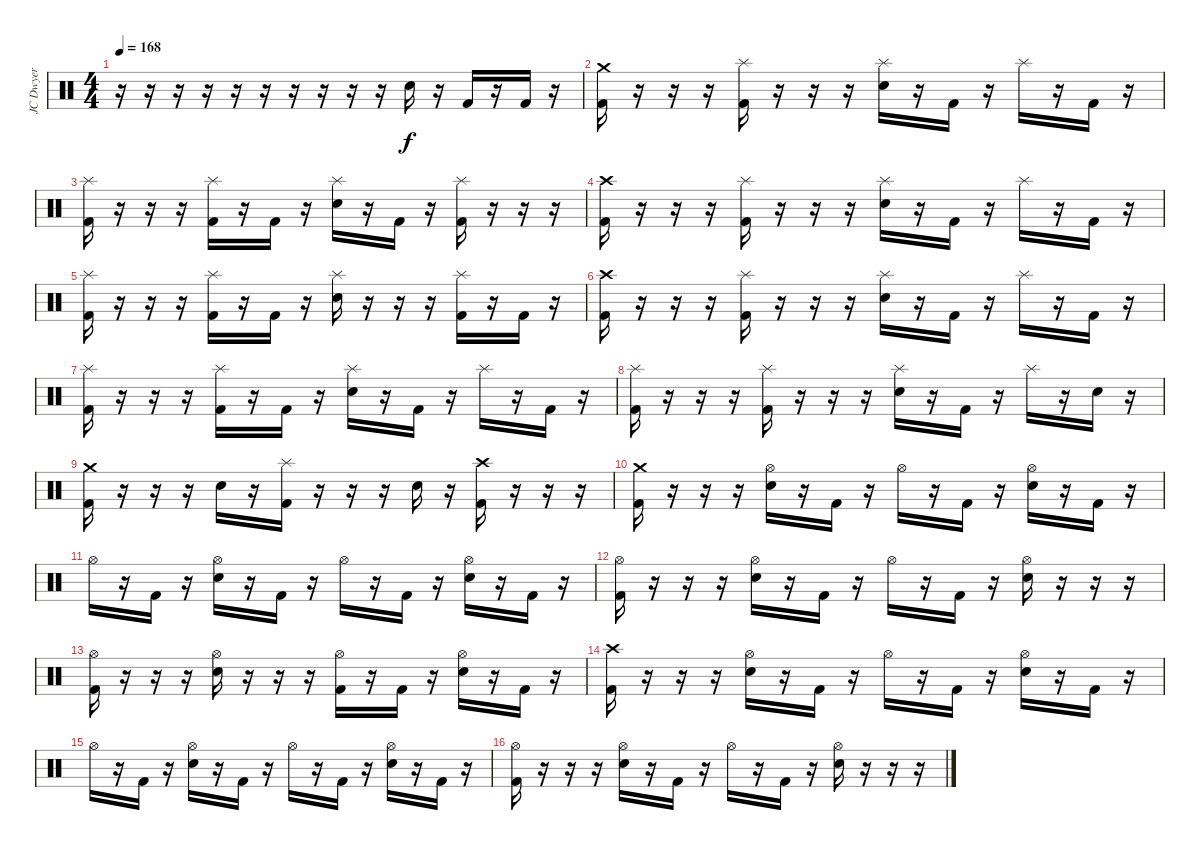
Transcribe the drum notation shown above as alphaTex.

\track ("JC Dwyer" "JC Dwyer") {instrument percussion}
\staff {score}
\articulation defaults
\ts (4 4)
\tempo 168
\clef neutral
\ks c
r.16{dy f} r.16 r.16 r.16 r.16 r.16 r.16 r.16 r.16 r.16 "Electric Snare (hit)".16 r.16 "Kick (hit) 2".16 r.16 "Kick (hit) 2".16 r.16 |
("Crash medium (hit)" "Kick (hit) 2").16 r.16 r.16 r.16 ("Splash (hit)" "Kick (hit) 2").16 r.16 r.16 r.16 ("Splash (hit)" "Electric Snare (hit)").16 r.16 "Kick (hit) 2".16 r.16 "Splash (hit)".16 r.16 "Kick (hit) 2".16 r.16 |
("Splash (hit)" "Kick (hit) 2").16 r.16 r.16 r.16 ("Splash (hit)" "Kick (hit) 2").16 r.16 "Kick (hit) 2".16 r.16 ("Splash (hit)" "Electric Snare (hit)").16 r.16 "Kick (hit) 2".16 r.16 ("Splash (hit)" "Kick (hit) 2").16 r.16 r.16 r.16 |
("Crash high (hit)" "Kick (hit) 2").16 r.16 r.16 r.16 ("Splash (hit)" "Kick (hit) 2").16 r.16 r.16 r.16 ("Splash (hit)" "Electric Snare (hit)").16 r.16 "Kick (hit) 2".16 r.16 "Splash (hit)".16 r.16 "Kick (hit) 2".16 r.16 |
("Splash (hit)" "Kick (hit) 2").16 r.16 r.16 r.16 ("Splash (hit)" "Kick (hit) 2").16 r.16 "Kick (hit) 2".16 r.16 ("Splash (hit)" "Electric Snare (hit)").16 r.16 r.16 r.16 ("Splash (hit)" "Kick (hit) 2").16 r.16 "Kick (hit) 2".16 r.16 |
("Crash high (hit)" "Kick (hit) 2").16 r.16 r.16 r.16 ("Splash (hit)" "Kick (hit) 2").16 r.16 r.16 r.16 ("Splash (hit)" "Electric Snare (hit)").16 r.16 "Kick (hit) 2".16 r.16 "Splash (hit)".16 r.16 "Kick (hit) 2".16 r.16 |
("Splash (hit)" "Kick (hit) 2").16 r.16 r.16 r.16 ("Splash (hit)" "Kick (hit) 2").16 r.16 "Kick (hit) 2".16 r.16 ("Splash (hit)" "Electric Snare (hit)").16 r.16 "Kick (hit) 2".16 r.16 "Splash (hit)".16 r.16 "Kick (hit) 2".16 r.16 |
("Splash (hit)" "Kick (hit) 2").16 r.16 r.16 r.16 ("Splash (hit)" "Kick (hit) 2").16 r.16 r.16 r.16 ("Splash (hit)" "Electric Snare (hit)").16 r.16 "Kick (hit) 2".16 r.16 "Splash (hit)".16 r.16 "Electric Snare (hit)".16 r.16 |
("Crash medium (hit)" "Kick (hit) 2").16 r.16 r.16 r.16 "Electric Snare (hit)".16 r.16 ("Splash (hit)" "Kick (hit) 2").16 r.16 r.16 r.16 "Electric Snare (hit)".16 r.16 ("Crash high (hit)" "Kick (hit) 2").16 r.16 r.16 r.16 |
("Crash medium (hit)" "Kick (hit) 2").16 r.16 r.16 r.16 ("Hi-Hat (open)" "Electric Snare (hit)").16 r.16 "Kick (hit) 2".16 r.16 "Hi-Hat (open)".16 r.16 "Kick (hit) 2".16 r.16 ("Hi-Hat (open)" "Electric Snare (hit)").16 r.16 "Kick (hit) 2".16 r.16 |
"Hi-Hat (open)".16 r.16 "Kick (hit) 2".16 r.16 ("Hi-Hat (open)" "Electric Snare (hit)").16 r.16 "Kick (hit) 2".16 r.16 "Hi-Hat (open)".16 r.16 "Kick (hit) 2".16 r.16 ("Hi-Hat (open)" "Electric Snare (hit)").16 r.16 "Kick (hit) 2".16 r.16 |
("Hi-Hat (open)" "Kick (hit) 2").16 r.16 r.16 r.16 ("Hi-Hat (open)" "Electric Snare (hit)").16 r.16 "Kick (hit) 2".16 r.16 "Hi-Hat (open)".16 r.16 "Kick (hit) 2".16 r.16 ("Hi-Hat (open)" "Electric Snare (hit)").16 r.16 r.16 r.16 |
("Hi-Hat (open)" "Kick (hit) 2").16 r.16 r.16 r.16 ("Hi-Hat (open)" "Electric Snare (hit)").16 r.16 r.16 r.16 ("Hi-Hat (open)" "Kick (hit) 2").16 r.16 "Kick (hit) 2".16 r.16 ("Hi-Hat (open)" "Electric Snare (hit)").16 r.16 "Kick (hit) 2".16 r.16 |
("Crash high (hit)" "Kick (hit) 2").16 r.16 r.16 r.16 ("Hi-Hat (open)" "Electric Snare (hit)").16 r.16 "Kick (hit) 2".16 r.16 "Hi-Hat (open)".16 r.16 "Kick (hit) 2".16 r.16 ("Hi-Hat (open)" "Electric Snare (hit)").16 r.16 "Kick (hit) 2".16 r.16 |
"Hi-Hat (open)".16 r.16 "Kick (hit) 2".16 r.16 ("Hi-Hat (open)" "Electric Snare (hit)").16 r.16 "Kick (hit) 2".16 r.16 "Hi-Hat (open)".16 r.16 "Kick (hit) 2".16 r.16 ("Hi-Hat (open)" "Electric Snare (hit)").16 r.16 "Kick (hit) 2".16 r.16 |
("Hi-Hat (open)" "Kick (hit) 2").16 r.16 r.16 r.16 ("Hi-Hat (open)" "Electric Snare (hit)").16 r.16 "Kick (hit) 2".16 r.16 "Hi-Hat (open)".16 r.16 "Kick (hit) 2".16 r.16 ("Hi-Hat (open)" "Electric Snare (hit)").16 r.16 r.16 r.16
